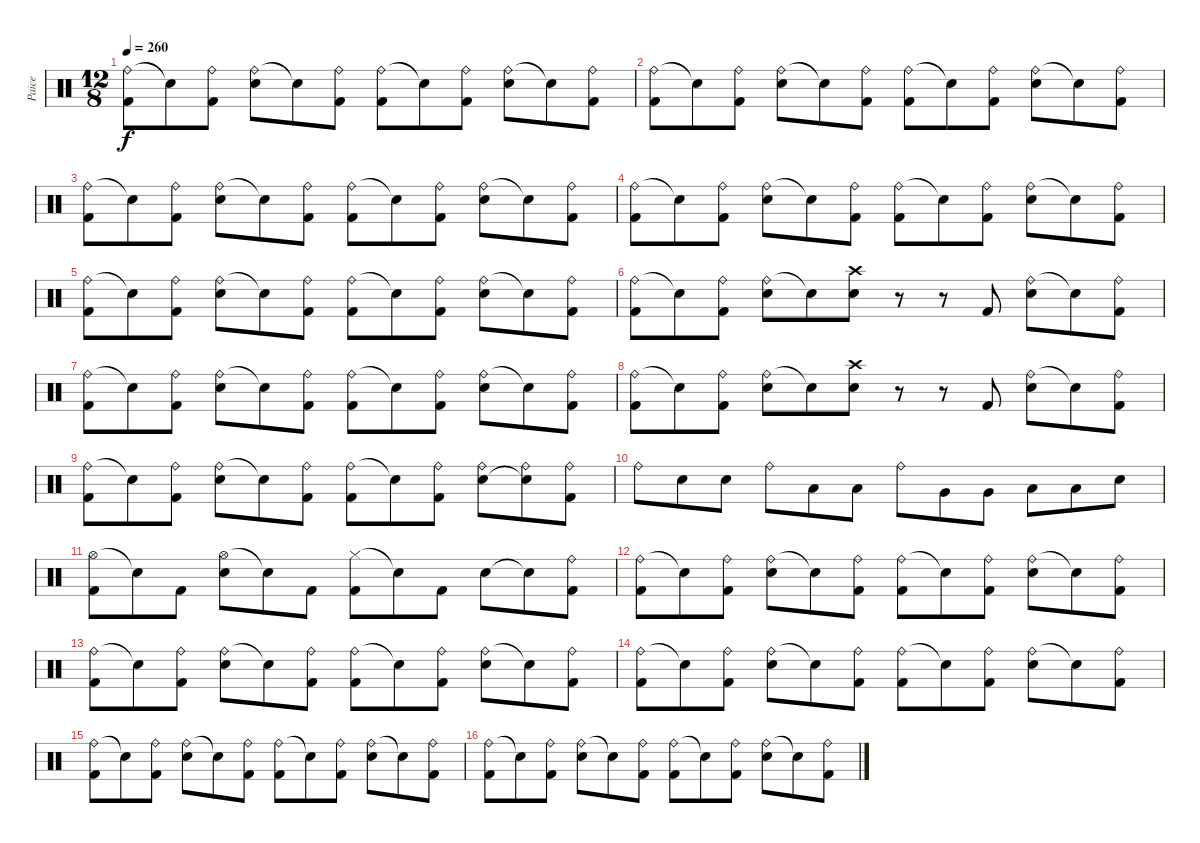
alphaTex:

\track ("Paice" "Paice") {instrument percussion}
\staff {score}
\articulation defaults
\ts (12 8)
\tempo 260
\clef neutral
\ks c
("Ride (bell)" "Kick (hit) 2").8{dy f} "Snare (hit)"{t}.8 ("Ride (bell)" "Kick (hit) 2").8 ("Ride (bell)" "Electric Snare (hit)").8 "Snare (hit)"{t}.8 ("Ride (bell)" "Kick (hit) 2").8 ("Ride (bell)" "Kick (hit) 2").8 "Snare (hit)"{t}.8 ("Ride (bell)" "Kick (hit) 2").8 ("Ride (bell)" "Electric Snare (hit)").8 "Snare (hit)"{t}.8 ("Ride (bell)" "Kick (hit) 2").8 |
("Ride (bell)" "Kick (hit) 2").8 "Snare (hit)"{t}.8 ("Ride (bell)" "Kick (hit) 2").8 ("Ride (bell)" "Electric Snare (hit)").8 "Snare (hit)"{t}.8 ("Ride (bell)" "Kick (hit) 2").8 ("Ride (bell)" "Kick (hit) 2").8 "Snare (hit)"{t}.8 ("Ride (bell)" "Kick (hit) 2").8 ("Ride (bell)" "Electric Snare (hit)").8 "Snare (hit)"{t}.8 ("Ride (bell)" "Kick (hit) 2").8 |
("Ride (bell)" "Kick (hit) 2").8 "Snare (hit)"{t}.8 ("Ride (bell)" "Kick (hit) 2").8 ("Ride (bell)" "Electric Snare (hit)").8 "Snare (hit)"{t}.8 ("Ride (bell)" "Kick (hit) 2").8 ("Ride (bell)" "Kick (hit) 2").8 "Snare (hit)"{t}.8 ("Ride (bell)" "Kick (hit) 2").8 ("Ride (bell)" "Electric Snare (hit)").8 "Snare (hit)"{t}.8 ("Ride (bell)" "Kick (hit) 2").8 |
("Ride (bell)" "Kick (hit) 2").8 "Snare (hit)"{t}.8 ("Ride (bell)" "Kick (hit) 2").8 ("Ride (bell)" "Electric Snare (hit)").8 "Snare (hit)"{t}.8 ("Ride (bell)" "Kick (hit) 2").8 ("Ride (bell)" "Kick (hit) 2").8 "Snare (hit)"{t}.8 ("Ride (bell)" "Kick (hit) 2").8 ("Ride (bell)" "Electric Snare (hit)").8 "Snare (hit)"{t}.8 ("Ride (bell)" "Kick (hit) 2").8 |
("Ride (bell)" "Kick (hit) 2").8 "Snare (hit)"{t}.8 ("Ride (bell)" "Kick (hit) 2").8 ("Ride (bell)" "Electric Snare (hit)").8 "Snare (hit)"{t}.8 ("Ride (bell)" "Kick (hit) 2").8 ("Ride (bell)" "Kick (hit) 2").8 "Snare (hit)"{t}.8 ("Ride (bell)" "Kick (hit) 2").8 ("Ride (bell)" "Electric Snare (hit)").8 "Snare (hit)"{t}.8 ("Ride (bell)" "Kick (hit) 2").8 |
("Ride (bell)" "Kick (hit) 2").8 "Snare (hit)"{t}.8 ("Ride (bell)" "Kick (hit) 2").8 ("Ride (bell)" "Electric Snare (hit)").8 "Snare (hit)"{t}.8 ("Crash high (hit)" "Electric Snare (hit)").8 r.8 r.8 "Kick (hit) 2".8 ("Ride (bell)" "Electric Snare (hit)").8 "Snare (hit)"{t}.8 ("Ride (bell)" "Kick (hit) 2").8 |
("Ride (bell)" "Kick (hit) 2").8 "Snare (hit)"{t}.8 ("Ride (bell)" "Kick (hit) 2").8 ("Ride (bell)" "Electric Snare (hit)").8 "Snare (hit)"{t}.8 ("Ride (bell)" "Kick (hit) 2").8 ("Ride (bell)" "Kick (hit) 2").8 "Snare (hit)"{t}.8 ("Ride (bell)" "Kick (hit) 2").8 ("Ride (bell)" "Electric Snare (hit)").8 "Snare (hit)"{t}.8 ("Ride (bell)" "Kick (hit) 2").8 |
("Ride (bell)" "Kick (hit) 2").8 "Snare (hit)"{t}.8 ("Ride (bell)" "Kick (hit) 2").8 ("Ride (bell)" "Electric Snare (hit)").8 "Snare (hit)"{t}.8 ("Crash high (hit)" "Electric Snare (hit)").8 r.8 r.8 "Kick (hit) 2".8 ("Ride (bell)" "Electric Snare (hit)").8 "Snare (hit)"{t}.8 ("Ride (bell)" "Kick (hit) 2").8 |
("Ride (bell)" "Kick (hit) 2").8 "Snare (hit)"{t}.8 ("Ride (bell)" "Kick (hit) 2").8 ("Ride (bell)" "Electric Snare (hit)").8 "Snare (hit)"{t}.8 ("Ride (bell)" "Kick (hit) 2").8 ("Ride (bell)" "Kick (hit) 2").8 "Snare (hit)"{t}.8 ("Ride (bell)" "Kick (hit) 2").8 ("Ride (bell)" "Electric Snare (hit)").8 ("Ride (bell)" "Snare (hit)"{t}).8 ("Ride (bell)" "Kick (hit) 2").8 |
"Ride (bell)".8 "Electric Snare (hit)".8 "Electric Snare (hit)".8 "Ride (bell)".8 "Low Tom (hit)".8 "Low Tom (hit)".8 "Ride (bell)".8 "Very Low Tom (hit)".8 "Very Low Tom (hit)".8 "Low Floor Tom (hit)".8 "Low Floor Tom (hit)".8 "Electric Snare (hit)".8 |
("Hi-Hat (open)" "Kick (hit) 2").8 "Snare (hit)"{t}.8 "Kick (hit) 2".8 ("Hi-Hat (open)" "Electric Snare (hit)").8 "Snare (hit)"{t}.8 "Kick (hit) 2".8 ("Hi-Hat (closed)" "Kick (hit) 2").8 "Snare (hit)"{t}.8 "Kick (hit) 2".8 "Electric Snare (hit)".8 "Snare (hit)"{t}.8 ("Ride (bell)" "Kick (hit) 2").8 |
("Ride (bell)" "Kick (hit) 2").8 "Snare (hit)"{t}.8 ("Ride (bell)" "Kick (hit) 2").8 ("Ride (bell)" "Electric Snare (hit)").8 "Snare (hit)"{t}.8 ("Ride (bell)" "Kick (hit) 2").8 ("Ride (bell)" "Kick (hit) 2").8 "Snare (hit)"{t}.8 ("Ride (bell)" "Kick (hit) 2").8 ("Ride (bell)" "Electric Snare (hit)").8 "Snare (hit)"{t}.8 ("Ride (bell)" "Kick (hit) 2").8 |
("Ride (bell)" "Kick (hit) 2").8 "Snare (hit)"{t}.8 ("Ride (bell)" "Kick (hit) 2").8 ("Ride (bell)" "Electric Snare (hit)").8 "Snare (hit)"{t}.8 ("Ride (bell)" "Kick (hit) 2").8 ("Ride (bell)" "Kick (hit) 2").8 "Snare (hit)"{t}.8 ("Ride (bell)" "Kick (hit) 2").8 ("Ride (bell)" "Electric Snare (hit)").8 "Snare (hit)"{t}.8 ("Ride (bell)" "Kick (hit) 2").8 |
("Ride (bell)" "Kick (hit) 2").8 "Snare (hit)"{t}.8 ("Ride (bell)" "Kick (hit) 2").8 ("Ride (bell)" "Electric Snare (hit)").8 "Snare (hit)"{t}.8 ("Ride (bell)" "Kick (hit) 2").8 ("Ride (bell)" "Kick (hit) 2").8 "Snare (hit)"{t}.8 ("Ride (bell)" "Kick (hit) 2").8 ("Ride (bell)" "Electric Snare (hit)").8 "Snare (hit)"{t}.8 ("Ride (bell)" "Kick (hit) 2").8 |
("Ride (bell)" "Kick (hit) 2").8 "Snare (hit)"{t}.8 ("Ride (bell)" "Kick (hit) 2").8 ("Ride (bell)" "Electric Snare (hit)").8 "Snare (hit)"{t}.8 ("Ride (bell)" "Kick (hit) 2").8 ("Ride (bell)" "Kick (hit) 2").8 "Snare (hit)"{t}.8 ("Ride (bell)" "Kick (hit) 2").8 ("Ride (bell)" "Electric Snare (hit)").8 "Snare (hit)"{t}.8 ("Ride (bell)" "Kick (hit) 2").8 |
("Ride (bell)" "Kick (hit) 2").8 "Snare (hit)"{t}.8 ("Ride (bell)" "Kick (hit) 2").8 ("Ride (bell)" "Electric Snare (hit)").8 "Snare (hit)"{t}.8 ("Ride (bell)" "Kick (hit) 2").8 ("Ride (bell)" "Kick (hit) 2").8 "Snare (hit)"{t}.8 ("Ride (bell)" "Kick (hit) 2").8 ("Ride (bell)" "Electric Snare (hit)").8 "Snare (hit)"{t}.8 ("Ride (bell)" "Kick (hit) 2").8
